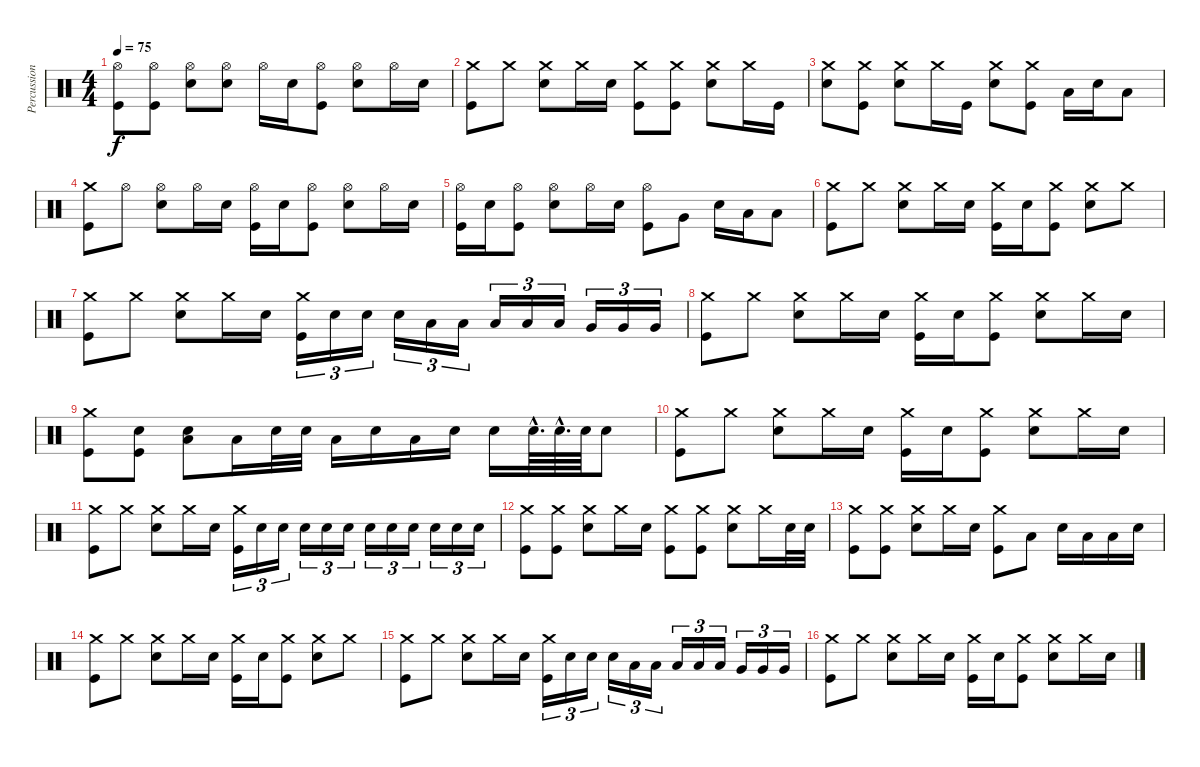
\track ("Percussion" "Percussion") {instrument percussion}
\staff {score}
\articulation defaults
\ts (4 4)
\tempo 75
\clef neutral
\ks c
("Hi-Hat (open)" "Kick (hit)").8{dy f} ("Hi-Hat (open)" "Kick (hit)").8 ("Hi-Hat (open)" "Snare (hit) 2").8 ("Hi-Hat (open)" "Snare (hit) 2").8 "Hi-Hat (open)".16 "Snare (hit) 2".16 ("Hi-Hat (open)" "Kick (hit)").8 ("Hi-Hat (open)" "Snare (hit) 2").8 "Hi-Hat (open)".16 "Snare (hit) 2".16 |
("Crash medium (hit)" "Kick (hit)").8 "Crash medium (hit)".8 ("Crash medium (hit)" "Snare (hit) 2").8 "Crash medium (hit)".16 "Snare (hit) 2".16 ("Crash medium (hit)" "Kick (hit)").8 ("Crash medium (hit)" "Kick (hit)").8 ("Crash medium (hit)" "Snare (hit) 2").8 "Crash medium (hit)".16 "Kick (hit)".16 |
("Crash medium (hit)" "Snare (hit) 2").8 ("Crash medium (hit)" "Kick (hit)").8 ("Crash medium (hit)" "Snare (hit) 2").8 "Crash medium (hit)".16 "Kick (hit)".16 ("Crash medium (hit)" "Snare (hit) 2").8 ("Crash medium (hit)" "Kick (hit)").8 "Low Tom (hit)".16 "Snare (hit) 2".16 "Low Tom (hit)".8 |
("Crash medium (hit)" "Kick (hit)").8 "Hi-Hat (open)".8 ("Hi-Hat (open)" "Snare (hit) 2").8 "Hi-Hat (open)".16 "Snare (hit) 2".16 ("Hi-Hat (open)" "Kick (hit)").16 "Snare (hit) 2".16 ("Hi-Hat (open)" "Kick (hit)").8 ("Hi-Hat (open)" "Snare (hit) 2").8 "Hi-Hat (open)".16 "Snare (hit) 2".16 |
("Hi-Hat (open)" "Kick (hit)").16 "Snare (hit) 2".16 ("Hi-Hat (open)" "Kick (hit)").8 ("Hi-Hat (open)" "Snare (hit) 2").8 "Hi-Hat (open)".16 "Snare (hit) 2".16 ("Hi-Hat (open)" "Kick (hit)").8 "Very Low Tom (hit)".8 "Snare (hit) 2".16 "Low Tom (hit)".16 "Low Tom (hit)".8 |
("Crash medium (hit)" "Kick (hit)").8 "Crash medium (hit)".8 ("Crash medium (hit)" "Snare (hit) 2").8 "Crash medium (hit)".16 "Snare (hit) 2".16 ("Crash medium (hit)" "Kick (hit)").16 "Snare (hit) 2".16 ("Crash medium (hit)" "Kick (hit)").8 ("Crash medium (hit)" "Snare (hit) 2").8 "Crash medium (hit)".8 |
("Crash medium (hit)" "Kick (hit)").8 "Crash medium (hit)".8 ("Crash medium (hit)" "Snare (hit) 2").8 "Crash medium (hit)".16 "Snare (hit) 2".16 ("Crash medium (hit)" "Kick (hit)").16{tu (3 2)} "Snare (hit) 2".16{tu (3 2)} "Snare (hit) 2".16{tu (3 2)} "Snare (hit) 2".16{tu (3 2)} "Low Tom (hit)".16{tu (3 2)} "Low Tom (hit)".16{tu (3 2)} "Low Tom (hit)".16{tu (3 2)} "Low Tom (hit)".16{tu (3 2)} "Low Tom (hit)".16{tu (3 2)} "Very Low Tom (hit)".16{tu (3 2)} "Very Low Tom (hit)".16{tu (3 2)} "Very Low Tom (hit)".16{tu (3 2)} |
("Crash medium (hit)" "Kick (hit)").8 "Crash medium (hit)".8 ("Crash medium (hit)" "Snare (hit) 2").8 "Crash medium (hit)".16 "Snare (hit) 2".16 ("Crash medium (hit)" "Kick (hit)").16 "Snare (hit) 2".16 ("Crash medium (hit)" "Kick (hit)").8 ("Crash medium (hit)" "Snare (hit) 2").8 "Crash medium (hit)".16 "Snare (hit) 2".16 |
("Crash medium (hit)" "Kick (hit)").8 ("Snare (hit) 2" "Kick (hit)").8 ("Low Tom (hit)" "Snare (hit) 2").8 "Low Tom (hit)".16 "Snare (hit) 2".32 "Snare (hit) 2".32 "Low Tom (hit)".16 "Snare (hit) 2".16 "Low Tom (hit)".16 "Snare (hit) 2".16 "Snare (hit) 2".16 "Snare (hit) 2"{hac}.64{d} "Snare (hit) 2"{hac}.64{d} "Snare (hit) 2".64 "Snare (hit) 2".8 |
("Crash medium (hit)" "Kick (hit)").8 "Crash medium (hit)".8 ("Crash medium (hit)" "Snare (hit) 2").8 "Crash medium (hit)".16 "Snare (hit) 2".16 ("Crash medium (hit)" "Kick (hit)").16 "Snare (hit) 2".16 ("Crash medium (hit)" "Kick (hit)").8 ("Crash medium (hit)" "Snare (hit) 2").8 "Crash medium (hit)".16 "Snare (hit) 2".16 |
("Crash medium (hit)" "Kick (hit)").8 "Crash medium (hit)".8 ("Crash medium (hit)" "Snare (hit) 2").8 "Crash medium (hit)".16 "Snare (hit) 2".16 ("Crash medium (hit)" "Kick (hit)").16{tu (3 2)} "Snare (hit) 2".16{tu (3 2)} "Snare (hit) 2".16{tu (3 2)} "Snare (hit) 2".16{tu (3 2)} "Snare (hit) 2".16{tu (3 2)} "Snare (hit) 2".16{tu (3 2)} "Snare (hit) 2".16{tu (3 2)} "Snare (hit) 2".16{tu (3 2)} "Snare (hit) 2".16{tu (3 2)} "Snare (hit) 2".16{tu (3 2)} "Snare (hit) 2".16{tu (3 2)} "Snare (hit) 2".16{tu (3 2)} |
("Crash medium (hit)" "Kick (hit)").8 ("Crash medium (hit)" "Kick (hit)").8 ("Crash medium (hit)" "Snare (hit) 2").8 "Crash medium (hit)".16 "Snare (hit) 2".16 ("Crash medium (hit)" "Kick (hit)").8 ("Crash medium (hit)" "Kick (hit)").8 ("Crash medium (hit)" "Snare (hit) 2").8 "Crash medium (hit)".16 "Snare (hit) 2".32 "Snare (hit) 2".32 |
("Crash medium (hit)" "Kick (hit)").8 ("Crash medium (hit)" "Kick (hit)").8 ("Crash medium (hit)" "Snare (hit) 2").8 "Crash medium (hit)".16 "Snare (hit) 2".16 ("Crash medium (hit)" "Kick (hit)").8 "Low Tom (hit)".8 "Snare (hit) 2".16 "Low Tom (hit)".16 "Low Tom (hit)".16 "Snare (hit) 2".16 |
("Crash medium (hit)" "Kick (hit)").8 "Crash medium (hit)".8 ("Crash medium (hit)" "Snare (hit) 2").8 "Crash medium (hit)".16 "Snare (hit) 2".16 ("Crash medium (hit)" "Kick (hit)").16 "Snare (hit) 2".16 ("Crash medium (hit)" "Kick (hit)").8 ("Crash medium (hit)" "Snare (hit) 2").8 "Crash medium (hit)".8 |
("Crash medium (hit)" "Kick (hit)").8 "Crash medium (hit)".8 ("Crash medium (hit)" "Snare (hit) 2").8 "Crash medium (hit)".16 "Snare (hit) 2".16 ("Crash medium (hit)" "Kick (hit)").16{tu (3 2)} "Snare (hit) 2".16{tu (3 2)} "Snare (hit) 2".16{tu (3 2)} "Snare (hit) 2".16{tu (3 2)} "Low Tom (hit)".16{tu (3 2)} "Low Tom (hit)".16{tu (3 2)} "Low Tom (hit)".16{tu (3 2)} "Low Tom (hit)".16{tu (3 2)} "Low Tom (hit)".16{tu (3 2)} "Very Low Tom (hit)".16{tu (3 2)} "Very Low Tom (hit)".16{tu (3 2)} "Very Low Tom (hit)".16{tu (3 2)} |
("Crash medium (hit)" "Kick (hit)").8 "Crash medium (hit)".8 ("Crash medium (hit)" "Snare (hit) 2").8 "Crash medium (hit)".16 "Snare (hit) 2".16 ("Crash medium (hit)" "Kick (hit)").16 "Snare (hit) 2".16 ("Crash medium (hit)" "Kick (hit)").8 ("Crash medium (hit)" "Snare (hit) 2").8 "Crash medium (hit)".16 "Snare (hit) 2".16
